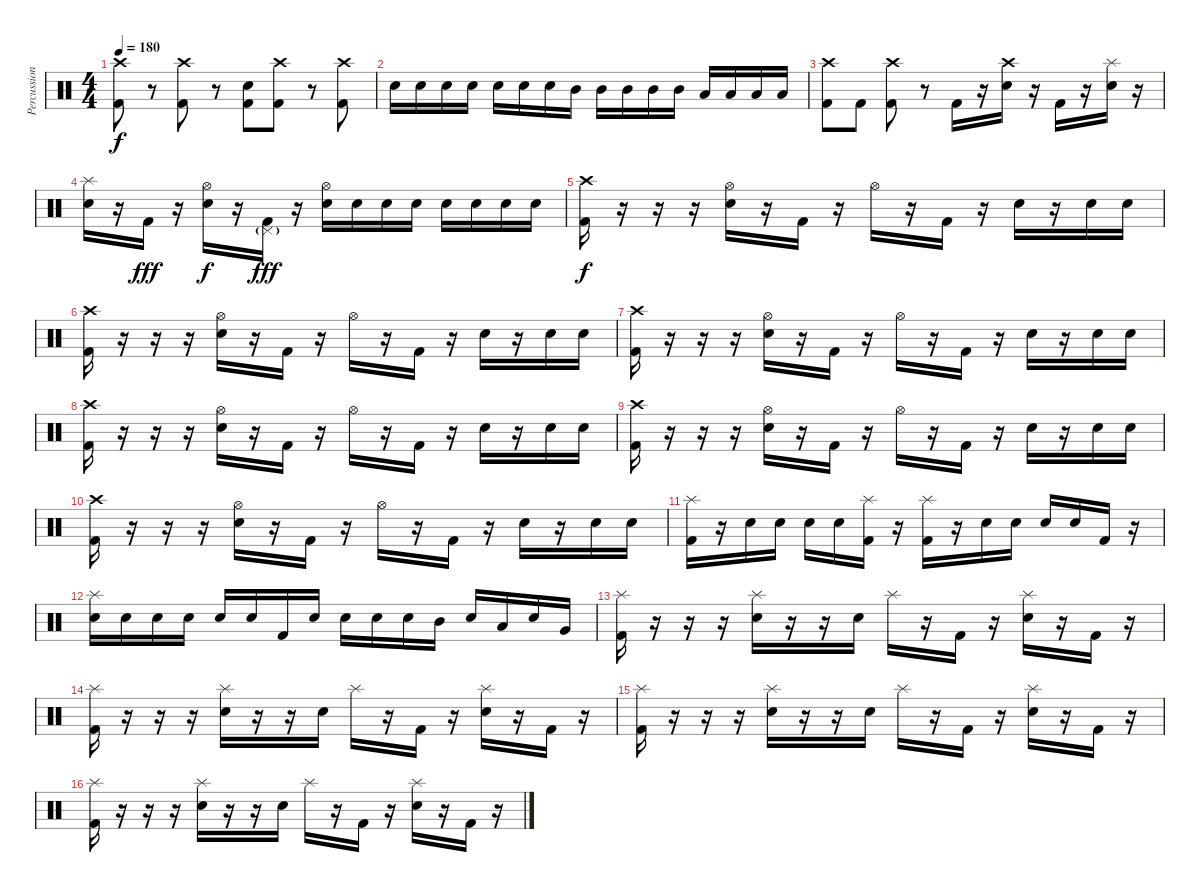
\track ("Percussion" "Percussion") {instrument percussion}
\staff {score}
\articulation defaults
\ts (4 4)
\tempo 180
\clef neutral
\ks c
("Crash high (hit)" "Kick (hit) 2").8{dy f} r.8 ("Crash high (hit)" "Kick (hit) 2").8 r.8 ("Electric Snare (hit)" "Kick (hit) 2").8 ("Crash high (hit)" "Kick (hit) 2").8 r.8 ("Crash high (hit)" "Kick (hit) 2").8 |
"Electric Snare (hit)".16 "Electric Snare (hit)".16 "Electric Snare (hit)".16 "Electric Snare (hit)".16 "Electric Snare (hit)".16 "Electric Snare (hit)".16 "Electric Snare (hit)".16 "Mid Tom (hit)".16 "Mid Tom (hit)".16 "Mid Tom (hit)".16 "Mid Tom (hit)".16 "Mid Tom (hit)".16 "Low Tom (hit)".16 "Low Tom (hit)".16 "Low Tom (hit)".16 "Low Tom (hit)".16 |
("Crash high (hit)" "Kick (hit) 2").8 "Kick (hit) 2".8 ("Crash high (hit)" "Kick (hit) 2").8 r.8 "Kick (hit) 2".16 r.16 ("Crash high (hit)" "Electric Snare (hit)").16 r.16 "Kick (hit) 2".16 r.16 ("Splash (hit)" "Electric Snare (hit)").16 r.16 |
("Splash (hit)" "Electric Snare (hit)").16 r.16 "Kick (hit) 2".16{dy fff} r.16 ("Hi-Hat (open)" "Electric Snare (hit)").16{dy f} r.16 ("Pedal Hi-Hat (hit)"{g} "Kick (hit) 2").16{dy fff} r.16 ("Hi-Hat (open)" "Electric Snare (hit)").16 "Electric Snare (hit)".16 "Electric Snare (hit)".16 "Electric Snare (hit)".16 "Electric Snare (hit)".16 "Electric Snare (hit)".16 "Electric Snare (hit)".16 "Electric Snare (hit)".16 |
("Crash high (hit)" "Kick (hit) 2").16{dy f} r.16 r.16 r.16 ("Hi-Hat (open)" "Electric Snare (hit)").16 r.16 "Kick (hit) 2".16 r.16 "Hi-Hat (open)".16 r.16 "Kick (hit) 2".16 r.16 "Electric Snare (hit)".16 r.16 "Electric Snare (hit)".16 "Electric Snare (hit)".16 |
("Crash high (hit)" "Kick (hit) 2").16 r.16 r.16 r.16 ("Hi-Hat (open)" "Electric Snare (hit)").16 r.16 "Kick (hit) 2".16 r.16 "Hi-Hat (open)".16 r.16 "Kick (hit) 2".16 r.16 "Electric Snare (hit)".16 r.16 "Electric Snare (hit)".16 "Electric Snare (hit)".16 |
("Crash high (hit)" "Kick (hit) 2").16 r.16 r.16 r.16 ("Hi-Hat (open)" "Electric Snare (hit)").16 r.16 "Kick (hit) 2".16 r.16 "Hi-Hat (open)".16 r.16 "Kick (hit) 2".16 r.16 "Electric Snare (hit)".16 r.16 "Electric Snare (hit)".16 "Electric Snare (hit)".16 |
("Crash high (hit)" "Kick (hit) 2").16 r.16 r.16 r.16 ("Hi-Hat (open)" "Electric Snare (hit)").16 r.16 "Kick (hit) 2".16 r.16 "Hi-Hat (open)".16 r.16 "Kick (hit) 2".16 r.16 "Electric Snare (hit)".16 r.16 "Electric Snare (hit)".16 "Electric Snare (hit)".16 |
("Crash high (hit)" "Kick (hit) 2").16 r.16 r.16 r.16 ("Hi-Hat (open)" "Electric Snare (hit)").16 r.16 "Kick (hit) 2".16 r.16 "Hi-Hat (open)".16 r.16 "Kick (hit) 2".16 r.16 "Electric Snare (hit)".16 r.16 "Electric Snare (hit)".16 "Electric Snare (hit)".16 |
("Crash high (hit)" "Kick (hit) 2").16 r.16 r.16 r.16 ("Hi-Hat (open)" "Electric Snare (hit)").16 r.16 "Kick (hit) 2".16 r.16 "Hi-Hat (open)".16 r.16 "Kick (hit) 2".16 r.16 "Electric Snare (hit)".16 r.16 "Electric Snare (hit)".16 "Electric Snare (hit)".16 |
("Splash (hit)" "Kick (hit) 2").16 r.16 "Electric Snare (hit)".16 "Electric Snare (hit)".16 "Electric Snare (hit)".16 "Electric Snare (hit)".16 ("Splash (hit)" "Kick (hit) 2").16 r.16 ("Splash (hit)" "Kick (hit) 2").16 r.16 "Electric Snare (hit)".16 "Electric Snare (hit)".16 "Electric Snare (hit)".16 "Electric Snare (hit)".16 "Kick (hit) 2".16 r.16 |
("Splash (hit)" "Electric Snare (hit)").16 "Electric Snare (hit)".16 "Electric Snare (hit)".16 "Electric Snare (hit)".16 "Electric Snare (hit)".16 "Electric Snare (hit)".16 "Kick (hit) 2".16 "Electric Snare (hit)".16 "Electric Snare (hit)".16 "Electric Snare (hit)".16 "Electric Snare (hit)".16 "Mid Tom (hit)".16 "Electric Snare (hit)".16 "Low Tom (hit)".16 "Electric Snare (hit)".16 "Very Low Tom (hit)".16 |
("Splash (hit)" "Kick (hit) 2").16 r.16 r.16 r.16 ("Splash (hit)" "Electric Snare (hit)").16 r.16 r.16 "Electric Snare (hit)".16 "Splash (hit)".16 r.16 "Kick (hit) 2".16 r.16 ("Splash (hit)" "Electric Snare (hit)").16 r.16 "Kick (hit) 2".16 r.16 |
("Splash (hit)" "Kick (hit) 2").16 r.16 r.16 r.16 ("Splash (hit)" "Electric Snare (hit)").16 r.16 r.16 "Electric Snare (hit)".16 "Splash (hit)".16 r.16 "Kick (hit) 2".16 r.16 ("Splash (hit)" "Electric Snare (hit)").16 r.16 "Kick (hit) 2".16 r.16 |
("Splash (hit)" "Kick (hit) 2").16 r.16 r.16 r.16 ("Splash (hit)" "Electric Snare (hit)").16 r.16 r.16 "Electric Snare (hit)".16 "Splash (hit)".16 r.16 "Kick (hit) 2".16 r.16 ("Splash (hit)" "Electric Snare (hit)").16 r.16 "Kick (hit) 2".16 r.16 |
("Splash (hit)" "Kick (hit) 2").16 r.16 r.16 r.16 ("Splash (hit)" "Electric Snare (hit)").16 r.16 r.16 "Electric Snare (hit)".16 "Splash (hit)".16 r.16 "Kick (hit) 2".16 r.16 ("Splash (hit)" "Electric Snare (hit)").16 r.16 "Kick (hit) 2".16 r.16
